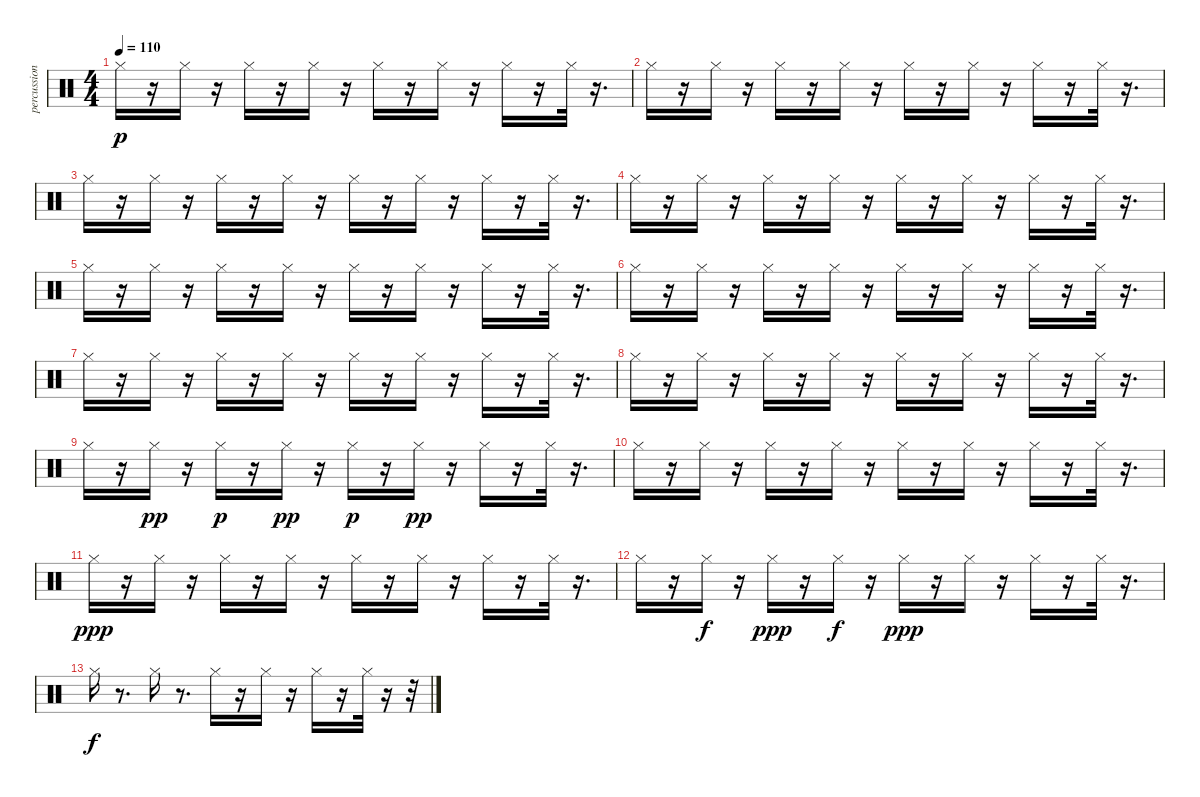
\track ("percussions 2" "percussion") {instrument percussion}
\staff {score}
\articulation defaults
\ts (4 4)
\tempo 110
\clef neutral
\ks c "Hi-Hat (closed)".16{dy p}
r.16 "Hi-Hat (closed)".16 r.16 "Hi-Hat (closed)".16 r.16 "Hi-Hat (closed)".16 r.16 "Hi-Hat (closed)".16 r.16 "Hi-Hat (closed)".16 r.16 "Hi-Hat (closed)".16 r.16 "Hi-Hat (closed)".32 r.16{d} |
"Hi-Hat (closed)".16 r.16 "Hi-Hat (closed)".16 r.16 "Hi-Hat (closed)".16 r.16 "Hi-Hat (closed)".16 r.16 "Hi-Hat (closed)".16 r.16 "Hi-Hat (closed)".16 r.16 "Hi-Hat (closed)".16 r.16 "Hi-Hat (closed)".32 r.16{d} |
"Hi-Hat (closed)".16 r.16 "Hi-Hat (closed)".16 r.16 "Hi-Hat (closed)".16 r.16 "Hi-Hat (closed)".16 r.16 "Hi-Hat (closed)".16 r.16 "Hi-Hat (closed)".16 r.16 "Hi-Hat (closed)".16 r.16 "Hi-Hat (closed)".32 r.16{d} |
"Hi-Hat (closed)".16 r.16 "Hi-Hat (closed)".16 r.16 "Hi-Hat (closed)".16 r.16 "Hi-Hat (closed)".16 r.16 "Hi-Hat (closed)".16 r.16 "Hi-Hat (closed)".16 r.16 "Hi-Hat (closed)".16 r.16 "Hi-Hat (closed)".32 r.16{d} |
"Hi-Hat (closed)".16 r.16 "Hi-Hat (closed)".16 r.16 "Hi-Hat (closed)".16 r.16 "Hi-Hat (closed)".16 r.16 "Hi-Hat (closed)".16 r.16 "Hi-Hat (closed)".16 r.16 "Hi-Hat (closed)".16 r.16 "Hi-Hat (closed)".32 r.16{d} |
"Hi-Hat (closed)".16 r.16 "Hi-Hat (closed)".16 r.16 "Hi-Hat (closed)".16 r.16 "Hi-Hat (closed)".16 r.16 "Hi-Hat (closed)".16 r.16 "Hi-Hat (closed)".16 r.16 "Hi-Hat (closed)".16 r.16 "Hi-Hat (closed)".32 r.16{d} |
"Hi-Hat (closed)".16 r.16 "Hi-Hat (closed)".16 r.16 "Hi-Hat (closed)".16 r.16 "Hi-Hat (closed)".16 r.16 "Hi-Hat (closed)".16 r.16 "Hi-Hat (closed)".16 r.16 "Hi-Hat (closed)".16 r.16 "Hi-Hat (closed)".32 r.16{d} |
"Hi-Hat (closed)".16 r.16 "Hi-Hat (closed)".16 r.16 "Hi-Hat (closed)".16 r.16 "Hi-Hat (closed)".16 r.16 "Hi-Hat (closed)".16 r.16 "Hi-Hat (closed)".16 r.16 "Hi-Hat (closed)".16 r.16 "Hi-Hat (closed)".32 r.16{d} |
"Hi-Hat (closed)".16 r.16 "Hi-Hat (closed)".16{dy pp} r.16 "Hi-Hat (closed)".16{dy p} r.16 "Hi-Hat (closed)".16{dy pp} r.16 "Hi-Hat (closed)".16{dy p} r.16 "Hi-Hat (closed)".16{dy pp} r.16 "Hi-Hat (closed)".16 r.16 "Hi-Hat (closed)".32 r.16{d} |
"Hi-Hat (closed)".16 r.16 "Hi-Hat (closed)".16 r.16 "Hi-Hat (closed)".16 r.16 "Hi-Hat (closed)".16 r.16 "Hi-Hat (closed)".16 r.16 "Hi-Hat (closed)".16 r.16 "Hi-Hat (closed)".16 r.16 "Hi-Hat (closed)".32 r.16{d} |
"Hi-Hat (closed)".16{dy ppp} r.16 "Hi-Hat (closed)".16 r.16 "Hi-Hat (closed)".16 r.16 "Hi-Hat (closed)".16 r.16 "Hi-Hat (closed)".16 r.16 "Hi-Hat (closed)".16 r.16 "Hi-Hat (closed)".16 r.16 "Hi-Hat (closed)".32 r.16{d} |
"Hi-Hat (closed)".16{volume 0} r.16 "Hi-Hat (closed)".16{dy f} r.16 "Hi-Hat (closed)".16{dy ppp} r.16 "Hi-Hat (closed)".16{dy f} r.16 "Hi-Hat (closed)".16{dy ppp} r.16 "Hi-Hat (closed)".16 r.16 "Hi-Hat (closed)".16 r.16 "Hi-Hat (closed)".32 r.16{d} |
"Hi-Hat (closed)".16{dy f volume 0} r.8{d} "Hi-Hat (closed)".16 r.8{d} "Hi-Hat (closed)".16 r.16 "Hi-Hat (closed)".16 r.16 "Hi-Hat (closed)".16 r.16 "Hi-Hat (closed)".32 r.16 r.32
